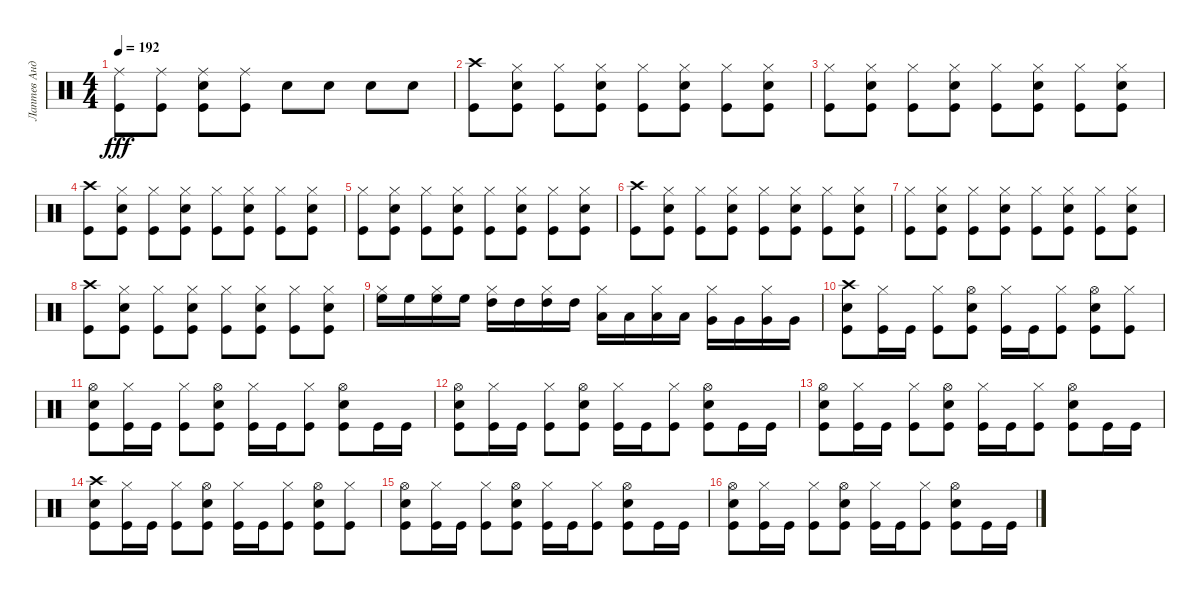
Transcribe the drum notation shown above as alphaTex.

\track ("Лаптев Андрей" "Лаптев Анд") {instrument percussion}
\staff {score}
\articulation defaults
\ts (4 4)
\tempo 192
\clef neutral
\ks c
("Ride (middle)" "Kick (hit)").8{dy fff} ("Kick (hit)" "Ride (middle)").8 ("Kick (hit)" "Ride (middle)" "Electric Snare (hit)").8 ("Kick (hit)" "Ride (middle)").8 "Electric Snare (hit)".8 "Electric Snare (hit)".8 "Electric Snare (hit)".8 "Electric Snare (hit)".8 |
("Kick (hit)" "Crash high (hit)").8 ("Hi-Hat (closed)" "Electric Snare (hit)" "Kick (hit)").8 ("Hi-Hat (closed)" "Kick (hit)").8 ("Hi-Hat (closed)" "Kick (hit)" "Electric Snare (hit)").8 ("Kick (hit)" "Hi-Hat (closed)").8 ("Hi-Hat (closed)" "Kick (hit)" "Electric Snare (hit)").8 ("Kick (hit)" "Hi-Hat (closed)").8 ("Electric Snare (hit)" "Hi-Hat (closed)" "Kick (hit)").8 |
("Kick (hit)" "Hi-Hat (closed)").8 ("Hi-Hat (closed)" "Electric Snare (hit)" "Kick (hit)").8 ("Hi-Hat (closed)" "Kick (hit)").8 ("Kick (hit)" "Hi-Hat (closed)" "Electric Snare (hit)").8 ("Hi-Hat (closed)" "Kick (hit)").8 ("Kick (hit)" "Electric Snare (hit)" "Hi-Hat (closed)").8 ("Hi-Hat (closed)" "Kick (hit)").8 ("Kick (hit)" "Hi-Hat (closed)" "Electric Snare (hit)").8 |
("Crash high (hit)" "Kick (hit)").8 ("Hi-Hat (closed)" "Electric Snare (hit)" "Kick (hit)").8 ("Kick (hit)" "Hi-Hat (closed)").8 ("Electric Snare (hit)" "Kick (hit)" "Hi-Hat (closed)").8 ("Hi-Hat (closed)" "Kick (hit)").8 ("Electric Snare (hit)" "Hi-Hat (closed)" "Kick (hit)").8 ("Kick (hit)" "Hi-Hat (closed)").8 ("Hi-Hat (closed)" "Kick (hit)" "Electric Snare (hit)").8 |
("Hi-Hat (closed)" "Kick (hit)").8 ("Hi-Hat (closed)" "Electric Snare (hit)" "Kick (hit)").8 ("Kick (hit)" "Hi-Hat (closed)").8 ("Hi-Hat (closed)" "Electric Snare (hit)" "Kick (hit)").8 ("Kick (hit)" "Hi-Hat (closed)").8 ("Hi-Hat (closed)" "Electric Snare (hit)" "Kick (hit)").8 ("Kick (hit)" "Hi-Hat (closed)").8 ("Kick (hit)" "Hi-Hat (closed)" "Electric Snare (hit)").8 |
("Crash high (hit)" "Kick (hit)").8 ("Hi-Hat (closed)" "Kick (hit)" "Electric Snare (hit)").8 ("Kick (hit)" "Hi-Hat (closed)").8 ("Electric Snare (hit)" "Hi-Hat (closed)" "Kick (hit)").8 ("Kick (hit)" "Hi-Hat (closed)").8 ("Electric Snare (hit)" "Hi-Hat (closed)" "Kick (hit)").8 ("Kick (hit)" "Hi-Hat (closed)").8 ("Kick (hit)" "Hi-Hat (closed)" "Electric Snare (hit)").8 |
("Hi-Hat (closed)" "Kick (hit)").8 ("Electric Snare (hit)" "Hi-Hat (closed)" "Kick (hit)").8 ("Hi-Hat (closed)" "Kick (hit)").8 ("Kick (hit)" "Hi-Hat (closed)" "Electric Snare (hit)").8 ("Hi-Hat (closed)" "Kick (hit)").8 ("Kick (hit)" "Hi-Hat (closed)" "Electric Snare (hit)").8 ("Kick (hit)" "Hi-Hat (closed)").8 ("Hi-Hat (closed)" "Electric Snare (hit)" "Kick (hit)").8 |
("Crash high (hit)" "Kick (hit)").8 ("Kick (hit)" "Electric Snare (hit)" "Hi-Hat (closed)").8 ("Hi-Hat (closed)" "Kick (hit)").8 ("Electric Snare (hit)" "Kick (hit)" "Hi-Hat (closed)").8 ("Kick (hit)" "Hi-Hat (closed)").8 ("Electric Snare (hit)" "Hi-Hat (closed)" "Kick (hit)").8 ("Hi-Hat (closed)" "Kick (hit)").8 ("Electric Snare (hit)" "Hi-Hat (closed)" "Kick (hit)").8 |
("Hi-Hat (closed)" "High Floor Tom (hit)").16 "High Floor Tom (hit)".16 ("Hi-Hat (closed)" "High Floor Tom (hit)").16 "High Floor Tom (hit)".16 ("Hi-Hat (closed)" "High Tom (hit)").16 "High Tom (hit)".16 ("High Tom (hit)" "Hi-Hat (closed)").16 "High Tom (hit)".16 ("Low Tom (hit)" "Hi-Hat (closed)").16 "Low Tom (hit)".16 ("Hi-Hat (closed)" "Low Tom (hit)").16 "Low Tom (hit)".16 ("Hi-Hat (closed)" "Very Low Tom (hit)").16 "Very Low Tom (hit)".16 ("Hi-Hat (closed)" "Very Low Tom (hit)").16 "Very Low Tom (hit)".16 |
("Crash high (hit)" "Electric Snare (hit)" "Kick (hit)").8 ("Hi-Hat (closed)" "Kick (hit)").16 "Kick (hit)".16 ("Kick (hit)" "Hi-Hat (closed)").8 ("Hi-Hat (open)" "Electric Snare (hit)" "Kick (hit)").8 ("Kick (hit)" "Hi-Hat (closed)").16 "Kick (hit)".16 ("Hi-Hat (closed)" "Kick (hit)").8 ("Electric Snare (hit)" "Hi-Hat (open)" "Kick (hit)").8 ("Hi-Hat (closed)" "Kick (hit)").8 |
("Kick (hit)" "Hi-Hat (open)" "Electric Snare (hit)").8 ("Kick (hit)" "Hi-Hat (closed)").16 "Kick (hit)".16 ("Kick (hit)" "Hi-Hat (closed)").8 ("Kick (hit)" "Hi-Hat (open)" "Electric Snare (hit)").8 ("Hi-Hat (closed)" "Kick (hit)").16 "Kick (hit)".16 ("Kick (hit)" "Hi-Hat (closed)").8 ("Kick (hit)" "Hi-Hat (open)" "Electric Snare (hit)").8 "Kick (hit)".16 "Kick (hit)".16 |
("Kick (hit)" "Hi-Hat (open)" "Electric Snare (hit)").8 ("Kick (hit)" "Hi-Hat (closed)").16 "Kick (hit)".16 ("Kick (hit)" "Hi-Hat (closed)").8 ("Kick (hit)" "Hi-Hat (open)" "Electric Snare (hit)").8 ("Hi-Hat (closed)" "Kick (hit)").16 "Kick (hit)".16 ("Kick (hit)" "Hi-Hat (closed)").8 ("Kick (hit)" "Hi-Hat (open)" "Electric Snare (hit)").8 "Kick (hit)".16 "Kick (hit)".16 |
("Kick (hit)" "Hi-Hat (open)" "Electric Snare (hit)").8 ("Kick (hit)" "Hi-Hat (closed)").16 "Kick (hit)".16 ("Kick (hit)" "Hi-Hat (closed)").8 ("Kick (hit)" "Hi-Hat (open)" "Electric Snare (hit)").8 ("Hi-Hat (closed)" "Kick (hit)").16 "Kick (hit)".16 ("Kick (hit)" "Hi-Hat (closed)").8 ("Kick (hit)" "Hi-Hat (open)" "Electric Snare (hit)").8 "Kick (hit)".16 "Kick (hit)".16 |
("Crash high (hit)" "Electric Snare (hit)" "Kick (hit)").8 ("Hi-Hat (closed)" "Kick (hit)").16 "Kick (hit)".16 ("Kick (hit)" "Hi-Hat (closed)").8 ("Hi-Hat (open)" "Electric Snare (hit)" "Kick (hit)").8 ("Kick (hit)" "Hi-Hat (closed)").16 "Kick (hit)".16 ("Hi-Hat (closed)" "Kick (hit)").8 ("Electric Snare (hit)" "Hi-Hat (open)" "Kick (hit)").8 ("Hi-Hat (closed)" "Kick (hit)").8 |
("Kick (hit)" "Hi-Hat (open)" "Electric Snare (hit)").8 ("Kick (hit)" "Hi-Hat (closed)").16 "Kick (hit)".16 ("Kick (hit)" "Hi-Hat (closed)").8 ("Kick (hit)" "Hi-Hat (open)" "Electric Snare (hit)").8 ("Hi-Hat (closed)" "Kick (hit)").16 "Kick (hit)".16 ("Kick (hit)" "Hi-Hat (closed)").8 ("Kick (hit)" "Hi-Hat (open)" "Electric Snare (hit)").8 "Kick (hit)".16 "Kick (hit)".16 |
("Kick (hit)" "Hi-Hat (open)" "Electric Snare (hit)").8 ("Kick (hit)" "Hi-Hat (closed)").16 "Kick (hit)".16 ("Kick (hit)" "Hi-Hat (closed)").8 ("Kick (hit)" "Hi-Hat (open)" "Electric Snare (hit)").8 ("Hi-Hat (closed)" "Kick (hit)").16 "Kick (hit)".16 ("Kick (hit)" "Hi-Hat (closed)").8 ("Kick (hit)" "Hi-Hat (open)" "Electric Snare (hit)").8 "Kick (hit)".16 "Kick (hit)".16
